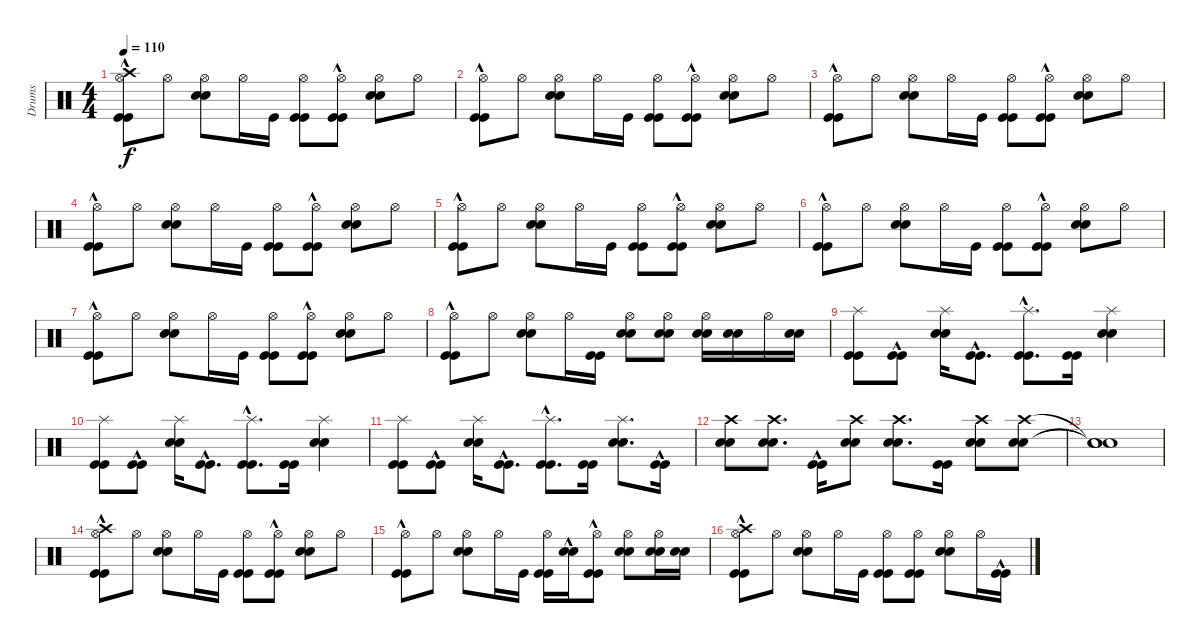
\track ("Drums" "Drums") {instrument percussion}
\staff {score}
\articulation defaults
\ts (4 4)
\tempo 110
\clef neutral
\ks c
("Kick (hit)"{hac} "Kick (hit)"{hac} "Hi-Hat (open)" "Crash high (hit)").8{dy f} "Hi-Hat (open)".8 ("Snare (hit) 2" "Snare (hit) 2" "Hi-Hat (open)").8 "Hi-Hat (open)".16 "Kick (hit)".16 ("Kick (hit)" "Kick (hit)" "Hi-Hat (open)").8 ("Kick (hit)"{hac} "Kick (hit)"{hac} "Hi-Hat (open)").8 ("Snare (hit) 2" "Snare (hit) 2" "Hi-Hat (open)").8 "Hi-Hat (open)".8 |
("Kick (hit)"{hac} "Kick (hit)"{hac} "Hi-Hat (open)").8 "Hi-Hat (open)".8 ("Snare (hit) 2" "Snare (hit) 2" "Hi-Hat (open)").8 "Hi-Hat (open)".16 "Kick (hit)".16 ("Kick (hit)" "Kick (hit)" "Hi-Hat (open)").8 ("Kick (hit)"{hac} "Kick (hit)"{hac} "Hi-Hat (open)").8 ("Snare (hit) 2" "Snare (hit) 2" "Hi-Hat (open)").8 "Hi-Hat (open)".8 |
("Kick (hit)"{hac} "Kick (hit)"{hac} "Hi-Hat (open)").8 "Hi-Hat (open)".8 ("Snare (hit) 2" "Snare (hit) 2" "Hi-Hat (open)").8 "Hi-Hat (open)".16 "Kick (hit)".16 ("Kick (hit)" "Kick (hit)" "Hi-Hat (open)").8 ("Kick (hit)"{hac} "Kick (hit)"{hac} "Hi-Hat (open)").8 ("Snare (hit) 2" "Snare (hit) 2" "Hi-Hat (open)").8 "Hi-Hat (open)".8 |
("Kick (hit)"{hac} "Kick (hit)"{hac} "Hi-Hat (open)").8 "Hi-Hat (open)".8 ("Snare (hit) 2" "Snare (hit) 2" "Hi-Hat (open)").8 "Hi-Hat (open)".16 "Kick (hit)".16 ("Kick (hit)" "Kick (hit)" "Hi-Hat (open)").8 ("Kick (hit)"{hac} "Kick (hit)"{hac} "Hi-Hat (open)").8 ("Snare (hit) 2" "Snare (hit) 2" "Hi-Hat (open)").8 "Hi-Hat (open)".8 |
("Kick (hit)"{hac} "Kick (hit)"{hac} "Hi-Hat (open)").8 "Hi-Hat (open)".8 ("Snare (hit) 2" "Snare (hit) 2" "Hi-Hat (open)").8 "Hi-Hat (open)".16 "Kick (hit)".16 ("Kick (hit)" "Kick (hit)" "Hi-Hat (open)").8 ("Kick (hit)"{hac} "Kick (hit)"{hac} "Hi-Hat (open)").8 ("Snare (hit) 2" "Snare (hit) 2" "Hi-Hat (open)").8 "Hi-Hat (open)".8 |
("Kick (hit)"{hac} "Kick (hit)"{hac} "Hi-Hat (open)").8 "Hi-Hat (open)".8 ("Snare (hit) 2" "Snare (hit) 2" "Hi-Hat (open)").8 "Hi-Hat (open)".16 "Kick (hit)".16 ("Kick (hit)" "Kick (hit)" "Hi-Hat (open)").8 ("Kick (hit)"{hac} "Kick (hit)"{hac} "Hi-Hat (open)").8 ("Snare (hit) 2" "Snare (hit) 2" "Hi-Hat (open)").8 "Hi-Hat (open)".8 |
("Kick (hit)"{hac} "Kick (hit)"{hac} "Hi-Hat (open)").8 "Hi-Hat (open)".8 ("Snare (hit) 2" "Snare (hit) 2" "Hi-Hat (open)").8 "Hi-Hat (open)".16 "Kick (hit)".16 ("Kick (hit)" "Kick (hit)" "Hi-Hat (open)").8 ("Kick (hit)"{hac} "Kick (hit)"{hac} "Hi-Hat (open)").8 ("Snare (hit) 2" "Snare (hit) 2" "Hi-Hat (open)").8 "Hi-Hat (open)".8 |
("Kick (hit)"{hac} "Kick (hit)"{hac} "Hi-Hat (open)").8 "Hi-Hat (open)".8 ("Snare (hit) 2" "Snare (hit) 2" "Hi-Hat (open)").8 "Hi-Hat (open)".16 ("Kick (hit)" "Kick (hit)").16 ("Snare (hit) 2" "Snare (hit) 2" "Hi-Hat (open)").8 ("Snare (hit) 2" "Snare (hit) 2" "Hi-Hat (open)").8 ("Snare (hit) 2" "Snare (hit) 2" "Hi-Hat (open)").16 ("Snare (hit) 2" "Snare (hit) 2").16 "Hi-Hat (open)".16 ("Snare (hit) 2" "Snare (hit) 2").16 |
("Kick (hit)" "Kick (hit)" "Splash (hit)").8 ("Kick (hit)"{hac} "Kick (hit)"{hac}).8 ("Snare (hit) 2" "Snare (hit) 2" "Splash (hit)").16 ("Kick (hit)"{hac} "Kick (hit)"{hac}).8{d} ("Kick (hit)"{hac} "Kick (hit)"{hac} "Splash (hit)").8{d} ("Kick (hit)" "Kick (hit)").16 ("Snare (hit) 2" "Snare (hit) 2" "Splash (hit)").4 |
("Kick (hit)" "Kick (hit)" "Splash (hit)").8 ("Kick (hit)"{hac} "Kick (hit)"{hac}).8 ("Snare (hit) 2" "Snare (hit) 2" "Splash (hit)").16 ("Kick (hit)"{hac} "Kick (hit)"{hac}).8{d} ("Kick (hit)"{hac} "Kick (hit)"{hac} "Splash (hit)").8{d} ("Kick (hit)" "Kick (hit)").16 ("Snare (hit) 2" "Snare (hit) 2" "Splash (hit)").4 |
("Kick (hit)" "Kick (hit)" "Splash (hit)").8 ("Kick (hit)"{hac} "Kick (hit)"{hac}).8 ("Snare (hit) 2" "Snare (hit) 2" "Splash (hit)").16 ("Kick (hit)"{hac} "Kick (hit)"{hac}).8{d} ("Kick (hit)"{hac} "Kick (hit)"{hac} "Splash (hit)").8{d} ("Kick (hit)" "Kick (hit)").16 ("Snare (hit) 2" "Snare (hit) 2" "Splash (hit)").8{d} ("Kick (hit)"{hac} "Kick (hit)"{hac}).16 |
("Snare (hit) 2" "Snare (hit) 2" "Crash high (hit)").8 ("Snare (hit) 2" "Snare (hit) 2" "Crash high (hit)").8{d} ("Kick (hit)"{hac} "Kick (hit)"{hac}).16 ("Snare (hit) 2" "Snare (hit) 2" "Crash high (hit)").8 ("Snare (hit) 2" "Snare (hit) 2" "Crash high (hit)").8{d} ("Kick (hit)" "Kick (hit)").16 ("Snare (hit) 2" "Snare (hit) 2" "Crash high (hit)").8 ("Snare (hit) 2" "Snare (hit) 2" "Crash high (hit)").8 |
("Snare (hit)"{t} "Snare (hit)"{t} "Snare (hit)"{t}).1 |
("Kick (hit)"{hac} "Kick (hit)"{hac} "Hi-Hat (open)" "Crash high (hit)").8 "Hi-Hat (open)".8 ("Snare (hit) 2" "Snare (hit) 2" "Hi-Hat (open)").8 "Hi-Hat (open)".16 "Kick (hit)".16 ("Kick (hit)" "Kick (hit)" "Hi-Hat (open)").8 ("Kick (hit)"{hac} "Kick (hit)"{hac} "Hi-Hat (open)").8 ("Snare (hit) 2" "Snare (hit) 2" "Hi-Hat (open)").8 "Hi-Hat (open)".8 |
("Kick (hit)"{hac} "Kick (hit)"{hac} "Hi-Hat (open)").8 "Hi-Hat (open)".8 ("Snare (hit) 2" "Snare (hit) 2" "Hi-Hat (open)").8 "Hi-Hat (open)".16 "Kick (hit)".16 ("Kick (hit)" "Kick (hit)" "Hi-Hat (open)").16 ("Snare (hit) 2"{hac} "Snare (hit) 2"{hac}).16 ("Kick (hit)"{hac} "Kick (hit)"{hac} "Hi-Hat (open)").8 ("Snare (hit) 2" "Snare (hit) 2" "Hi-Hat (open)").8 ("Snare (hit) 2" "Snare (hit) 2" "Hi-Hat (open)").16 ("Snare (hit) 2" "Snare (hit) 2").16 |
("Kick (hit)"{hac} "Kick (hit)"{hac} "Hi-Hat (open)" "Crash high (hit)").8 "Hi-Hat (open)".8 ("Snare (hit) 2" "Snare (hit) 2" "Hi-Hat (open)").8 "Hi-Hat (open)".16 "Kick (hit)".16 ("Kick (hit)" "Kick (hit)" "Hi-Hat (open)").8 ("Kick (hit)" "Kick (hit)" "Hi-Hat (open)").8 ("Snare (hit) 2" "Snare (hit) 2" "Hi-Hat (open)").8 "Hi-Hat (open)".16 ("Kick (hit)"{hac} "Kick (hit)"{hac}).16
